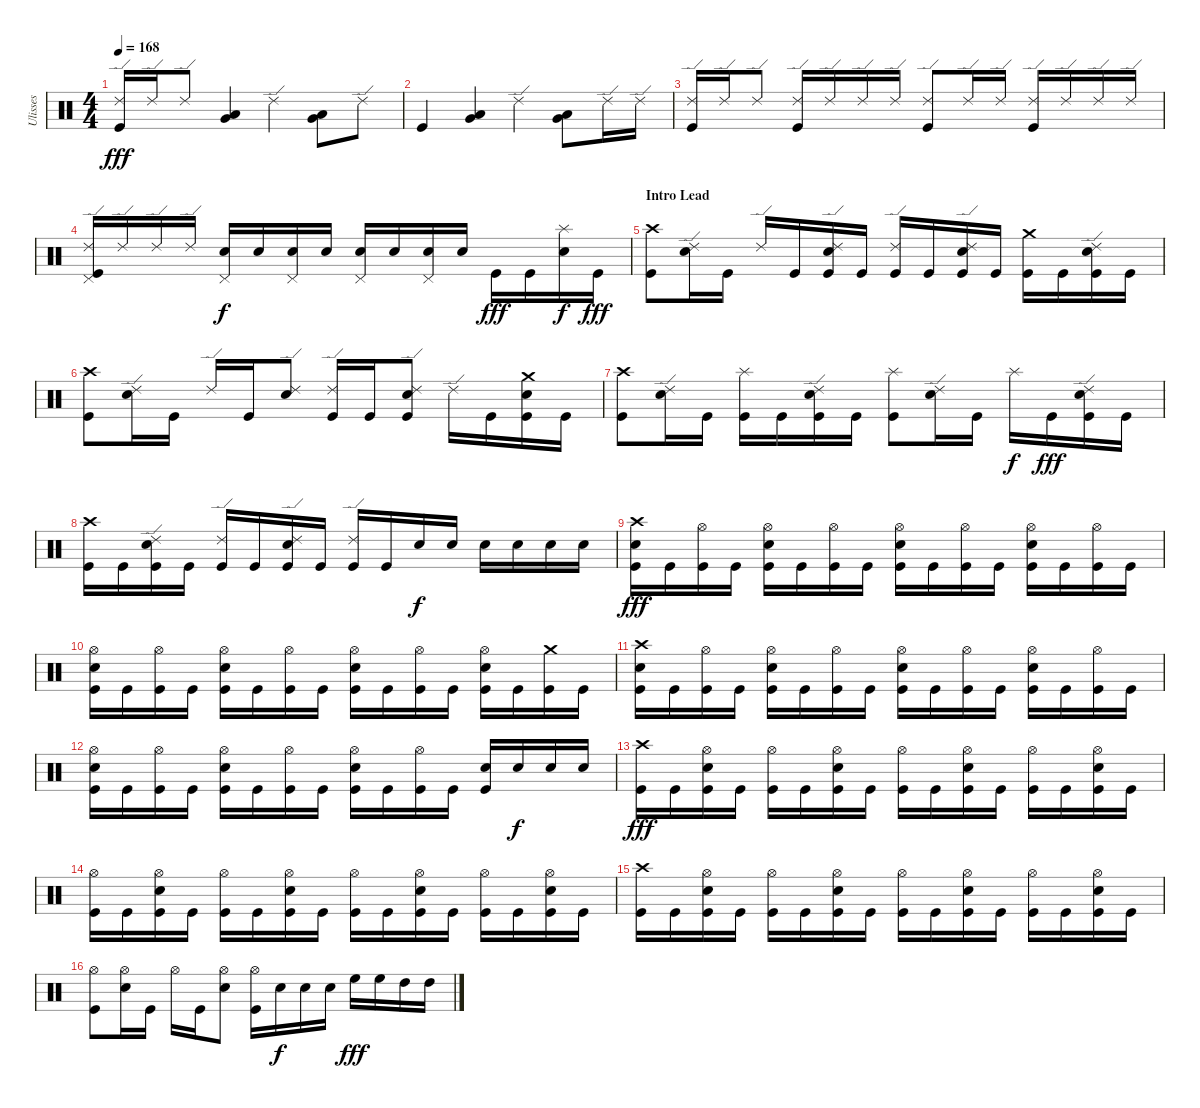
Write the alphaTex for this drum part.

\track ("Ulisses" "Ulisses") {instrument percussion}
\staff {score}
\articulation defaults
\ts (4 4)
\tempo 168
\clef neutral
\ks c
("Ride (edge) 2" "Kick (hit)").16{dy fff} "Ride (edge) 2".16 "Ride (edge) 2".8 ("Low Tom (hit)" "Very Low Tom (hit)").4 "Ride (edge) 2".4 ("Low Tom (hit)" "Very Low Tom (hit)").8 "Ride (edge) 2".8 |
"Kick (hit)".4 ("Low Tom (hit)" "Very Low Tom (hit)").4 "Ride (edge) 2".4 ("Low Tom (hit)" "Very Low Tom (hit)").8 "Ride (edge) 2".16 "Ride (edge) 2".16 |
("Ride (edge) 2" "Kick (hit)").16 "Ride (edge) 2".16 "Ride (edge) 2".8 ("Ride (edge) 2" "Kick (hit)").16 "Ride (edge) 2".16 "Ride (edge) 2".16 "Ride (edge) 2".16 ("Ride (edge) 2" "Kick (hit)").8 "Ride (edge) 2".16 "Ride (edge) 2".16 ("Ride (edge) 2" "Kick (hit)").16 "Ride (edge) 2".16 "Ride (edge) 2".16 "Ride (edge) 2".16 |
("Ride (edge) 2" "Pedal Hi-Hat (hit)" "Kick (hit)").16 "Ride (edge) 2".16 "Ride (edge) 2".16 "Ride (edge) 2".16 ("Pedal Hi-Hat (hit)" "Snare (hit) 2").16{dy f} "Snare (hit) 2".16 ("Pedal Hi-Hat (hit)" "Snare (hit) 2").16 "Snare (hit) 2".16 ("Pedal Hi-Hat (hit)" "Snare (hit) 2").16 "Snare (hit) 2".16 ("Pedal Hi-Hat (hit)" "Snare (hit) 2").16 "Snare (hit) 2".16 "Kick (hit)".16{dy fff} "Kick (hit)".16 ("Splash (hit)" "Snare (hit) 2").16{dy f} "Kick (hit)".16{dy fff} |
\section ("" "Intro Lead")
("Crash high (hit)" "Kick (hit)").8 ("Ride (edge) 2" "Snare (hit) 2").16 "Kick (hit)".16 "Ride (edge) 2".16 "Kick (hit)".16 ("Ride (edge) 2" "Snare (hit) 2" "Kick (hit)").16 "Kick (hit)".16 ("Ride (edge) 2" "Kick (hit)").16 "Kick (hit)".16 ("Ride (edge) 2" "Snare (hit) 2" "Kick (hit)").16 "Kick (hit)".16 ("Crash medium (hit)" "Kick (hit)").16 "Kick (hit)".16 ("Ride (edge) 2" "Snare (hit) 2" "Kick (hit)").16 "Kick (hit)".16 |
("Crash high (hit)" "Kick (hit)").8 ("Ride (edge) 2" "Snare (hit) 2").16 "Kick (hit)".16 "Ride (edge) 2".16 "Kick (hit)".16 ("Ride (edge) 2" "Snare (hit) 2").8 ("Ride (edge) 2" "Kick (hit)").16 "Kick (hit)".16 ("Ride (edge) 2" "Snare (hit) 2" "Kick (hit)").8 "Ride (edge) 2".16 "Kick (hit)".16 ("Crash medium (hit)" "Snare (hit) 2" "Kick (hit)").16 "Kick (hit)".16 |
("Crash high (hit)" "Kick (hit)").8 ("Ride (edge) 2" "Snare (hit) 2").16 "Kick (hit)".16 ("Splash (hit)" "Kick (hit)").16 "Kick (hit)".16 ("Ride (edge) 2" "Snare (hit) 2" "Kick (hit)").16 "Kick (hit)".16 ("Splash (hit)" "Kick (hit)").8 ("Ride (edge) 2" "Snare (hit) 2").16 "Kick (hit)".16 "Splash (hit)".16{dy f} "Kick (hit)".16{dy fff} ("Ride (edge) 2" "Snare (hit) 2" "Kick (hit)").16 "Kick (hit)".16 |
("Crash high (hit)" "Kick (hit)").16 "Kick (hit)".16 ("Ride (edge) 2" "Snare (hit) 2" "Kick (hit)").16 "Kick (hit)".16 ("Ride (edge) 2" "Kick (hit)").16 "Kick (hit)".16 ("Ride (edge) 2" "Snare (hit) 2" "Kick (hit)").16 "Kick (hit)".16 ("Ride (edge) 2" "Kick (hit)").16 "Kick (hit)".16 "Snare (hit) 2".16{dy f} "Snare (hit) 2".16 "Snare (hit) 2".16 "Snare (hit) 2".16 "Snare (hit) 2".16 "Snare (hit) 2".16 |
("Crash high (hit)" "Snare (hit) 2" "Kick (hit)").16{dy fff} "Kick (hit)".16 ("Hi-Hat (open)" "Kick (hit)").16 "Kick (hit)".16 ("Hi-Hat (open)" "Snare (hit) 2" "Kick (hit)").16 "Kick (hit)".16 ("Hi-Hat (open)" "Kick (hit)").16 "Kick (hit)".16 ("Hi-Hat (open)" "Snare (hit) 2" "Kick (hit)").16 "Kick (hit)".16 ("Hi-Hat (open)" "Kick (hit)").16 "Kick (hit)".16 ("Hi-Hat (open)" "Snare (hit) 2" "Kick (hit)").16 "Kick (hit)".16 ("Hi-Hat (open)" "Kick (hit)").16 "Kick (hit)".16 |
("Hi-Hat (open)" "Snare (hit) 2" "Kick (hit)").16 "Kick (hit)".16 ("Hi-Hat (open)" "Kick (hit)").16 "Kick (hit)".16 ("Hi-Hat (open)" "Snare (hit) 2" "Kick (hit)").16 "Kick (hit)".16 ("Hi-Hat (open)" "Kick (hit)").16 "Kick (hit)".16 ("Hi-Hat (open)" "Snare (hit) 2" "Kick (hit)").16 "Kick (hit)".16 ("Hi-Hat (open)" "Kick (hit)").16 "Kick (hit)".16 ("Hi-Hat (open)" "Snare (hit) 2" "Kick (hit)").16 "Kick (hit)".16 ("Crash medium (hit)" "Kick (hit)").16 "Kick (hit)".16 |
("Crash high (hit)" "Snare (hit) 2" "Kick (hit)").16 "Kick (hit)".16 ("Hi-Hat (open)" "Kick (hit)").16 "Kick (hit)".16 ("Hi-Hat (open)" "Snare (hit) 2" "Kick (hit)").16 "Kick (hit)".16 ("Hi-Hat (open)" "Kick (hit)").16 "Kick (hit)".16 ("Hi-Hat (open)" "Snare (hit) 2" "Kick (hit)").16 "Kick (hit)".16 ("Hi-Hat (open)" "Kick (hit)").16 "Kick (hit)".16 ("Hi-Hat (open)" "Snare (hit) 2" "Kick (hit)").16 "Kick (hit)".16 ("Hi-Hat (open)" "Kick (hit)").16 "Kick (hit)".16 |
("Hi-Hat (open)" "Snare (hit) 2" "Kick (hit)").16 "Kick (hit)".16 ("Hi-Hat (open)" "Kick (hit)").16 "Kick (hit)".16 ("Hi-Hat (open)" "Snare (hit) 2" "Kick (hit)").16 "Kick (hit)".16 ("Hi-Hat (open)" "Kick (hit)").16 "Kick (hit)".16 ("Hi-Hat (open)" "Snare (hit) 2" "Kick (hit)").16 "Kick (hit)".16 ("Hi-Hat (open)" "Kick (hit)").16 "Kick (hit)".16 ("Snare (hit) 2" "Kick (hit)").16 "Snare (hit) 2".16{dy f} "Snare (hit) 2".16 "Snare (hit) 2".16 |
("Crash high (hit)" "Kick (hit)").16{dy fff} "Kick (hit)".16 ("Hi-Hat (open)" "Snare (hit) 2" "Kick (hit)").16 "Kick (hit)".16 ("Hi-Hat (open)" "Kick (hit)").16 "Kick (hit)".16 ("Hi-Hat (open)" "Snare (hit) 2" "Kick (hit)").16 "Kick (hit)".16 ("Hi-Hat (open)" "Kick (hit)").16 "Kick (hit)".16 ("Hi-Hat (open)" "Snare (hit) 2" "Kick (hit)").16 "Kick (hit)".16 ("Hi-Hat (open)" "Kick (hit)").16 "Kick (hit)".16 ("Hi-Hat (open)" "Snare (hit) 2" "Kick (hit)").16 "Kick (hit)".16 |
("Hi-Hat (open)" "Kick (hit)").16 "Kick (hit)".16 ("Hi-Hat (open)" "Snare (hit) 2" "Kick (hit)").16 "Kick (hit)".16 ("Hi-Hat (open)" "Kick (hit)").16 "Kick (hit)".16 ("Hi-Hat (open)" "Snare (hit) 2" "Kick (hit)").16 "Kick (hit)".16 ("Hi-Hat (open)" "Kick (hit)").16 "Kick (hit)".16 ("Hi-Hat (open)" "Snare (hit) 2" "Kick (hit)").16 "Kick (hit)".16 ("Hi-Hat (open)" "Kick (hit)").16 "Kick (hit)".16 ("Hi-Hat (open)" "Snare (hit) 2" "Kick (hit)").16 "Kick (hit)".16 |
("Crash high (hit)" "Kick (hit)").16 "Kick (hit)".16 ("Hi-Hat (open)" "Snare (hit) 2" "Kick (hit)").16 "Kick (hit)".16 ("Hi-Hat (open)" "Kick (hit)").16 "Kick (hit)".16 ("Hi-Hat (open)" "Snare (hit) 2" "Kick (hit)").16 "Kick (hit)".16 ("Hi-Hat (open)" "Kick (hit)").16 "Kick (hit)".16 ("Hi-Hat (open)" "Snare (hit) 2" "Kick (hit)").16 "Kick (hit)".16 ("Hi-Hat (open)" "Kick (hit)").16 "Kick (hit)".16 ("Hi-Hat (open)" "Snare (hit) 2" "Kick (hit)").16 "Kick (hit)".16 |
("Hi-Hat (open)" "Kick (hit)").8 ("Hi-Hat (open)" "Snare (hit) 2").16 "Kick (hit)".16 "Hi-Hat (open)".16 "Kick (hit)".16 ("Hi-Hat (open)" "Snare (hit) 2").8 ("Hi-Hat (open)" "Kick (hit)").16 "Snare (hit) 2".16{dy f} "Snare (hit) 2".16 "Snare (hit) 2".16 "High Floor Tom (hit)".16{dy fff} "High Floor Tom (hit)".16 "High Tom (hit)".16 "High Tom (hit)".16
